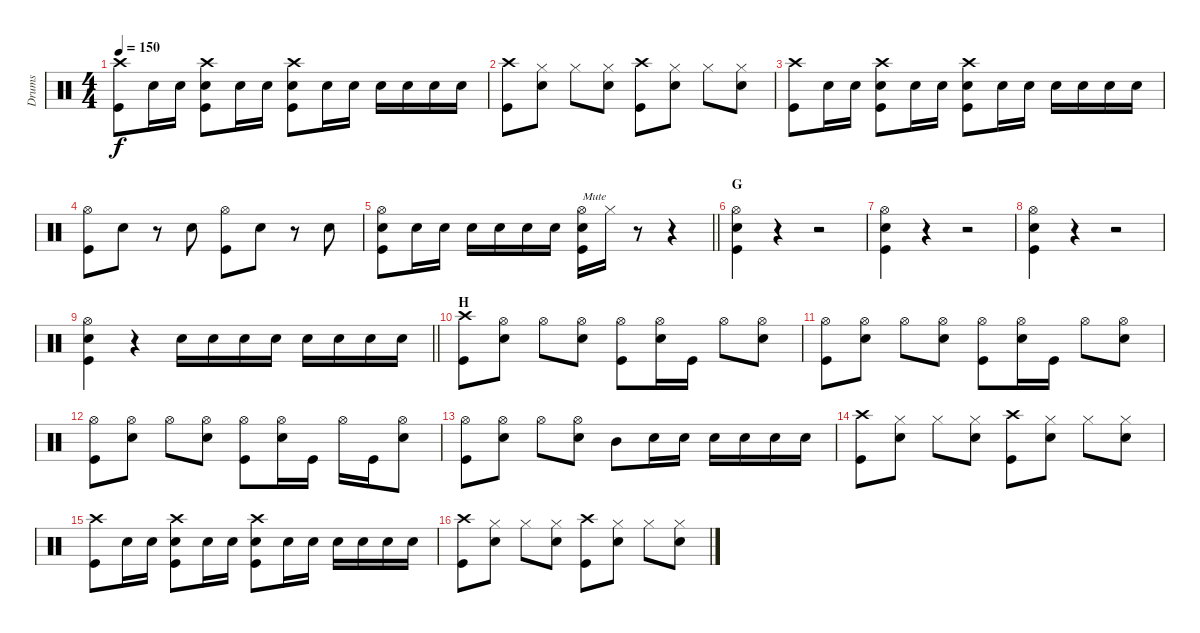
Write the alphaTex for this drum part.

\track ("Drums" "Drums") {instrument percussion}
\staff {score}
\articulation defaults
\ts (4 4)
\tempo 150
\clef neutral
\ks c
("Crash high (hit)" "Kick (hit)").8{dy f} "Snare (hit) 2".16 "Snare (hit) 2".16 ("Crash high (hit)" "Snare (hit) 2" "Kick (hit)").8 "Snare (hit) 2".16 "Snare (hit) 2".16 ("Crash high (hit)" "Snare (hit) 2" "Kick (hit)").8 "Snare (hit) 2".16 "Snare (hit) 2".16 "Snare (hit) 2".16 "Snare (hit) 2".16 "Snare (hit) 2".16 "Snare (hit) 2".16 |
("Crash high (hit)" "Kick (hit)").8 ("Hi-Hat (closed)" "Snare (hit) 2").8 "Hi-Hat (closed)".8 ("Hi-Hat (closed)" "Snare (hit) 2").8 ("Crash high (hit)" "Kick (hit)").8 ("Hi-Hat (closed)" "Snare (hit) 2").8 "Hi-Hat (closed)".8 ("Hi-Hat (closed)" "Snare (hit) 2").8 |
("Crash high (hit)" "Kick (hit)").8 "Snare (hit) 2".16 "Snare (hit) 2".16 ("Crash high (hit)" "Snare (hit) 2" "Kick (hit)").8 "Snare (hit) 2".16 "Snare (hit) 2".16 ("Crash high (hit)" "Snare (hit) 2" "Kick (hit)").8 "Snare (hit) 2".16 "Snare (hit) 2".16 "Snare (hit) 2".16 "Snare (hit) 2".16 "Snare (hit) 2".16 "Snare (hit) 2".16 |
("Hi-Hat (open)" "Kick (hit)").8 "Snare (hit) 2".8 r.8 "Snare (hit) 2".8 ("Hi-Hat (open)" "Kick (hit)").8 "Snare (hit) 2".8 r.8 "Snare (hit) 2".8 |
\barLineRight lightlight
("Hi-Hat (open)" "Snare (hit) 2" "Kick (hit)").8 "Snare (hit) 2".16 "Snare (hit) 2".16 "Snare (hit) 2".16 "Snare (hit) 2".16 "Snare (hit) 2".16 "Snare (hit) 2".16 ("Hi-Hat (open)" "Snare (hit) 2" "Kick (hit)").16{txt "Mute"} "Hi-Hat (closed)".16 r.8 r.4 |
\section ("" "G")
("Hi-Hat (open)" "Snare (hit) 2" "Kick (hit)").4 r.4 r.2 |
("Hi-Hat (open)" "Snare (hit) 2" "Kick (hit)").4 r.4 r.2 |
("Hi-Hat (open)" "Snare (hit) 2" "Kick (hit)").4 r.4 r.2 |
\barLineRight lightlight
("Hi-Hat (open)" "Snare (hit) 2" "Kick (hit)").4 r.4 "Snare (hit) 2".16 "Snare (hit) 2".16 "Snare (hit) 2".16 "Snare (hit) 2".16 "Snare (hit) 2".16 "Snare (hit) 2".16 "Snare (hit) 2".16 "Snare (hit) 2".16 |
\section ("" "H")
("Crash high (hit)" "Kick (hit)").8 ("Hi-Hat (open)" "Snare (hit) 2").8 "Hi-Hat (open)".8 ("Hi-Hat (open)" "Snare (hit) 2").8 ("Hi-Hat (open)" "Kick (hit)").8 ("Hi-Hat (open)" "Snare (hit) 2").16 "Kick (hit)".16 "Hi-Hat (open)".8 ("Hi-Hat (open)" "Snare (hit) 2").8 |
("Hi-Hat (open)" "Kick (hit)").8 ("Hi-Hat (open)" "Snare (hit) 2").8 "Hi-Hat (open)".8 ("Hi-Hat (open)" "Snare (hit) 2").8 ("Hi-Hat (open)" "Kick (hit)").8 ("Hi-Hat (open)" "Snare (hit) 2").16 "Kick (hit)".16 "Hi-Hat (open)".8 ("Hi-Hat (open)" "Snare (hit) 2").8 |
("Hi-Hat (open)" "Kick (hit)").8 ("Hi-Hat (open)" "Snare (hit) 2").8 "Hi-Hat (open)".8 ("Hi-Hat (open)" "Snare (hit) 2").8 ("Hi-Hat (open)" "Kick (hit)").8 ("Hi-Hat (open)" "Snare (hit) 2").16 "Kick (hit)".16 "Hi-Hat (open)".16 "Kick (hit)".16 ("Hi-Hat (open)" "Snare (hit) 2").8 |
("Hi-Hat (open)" "Kick (hit)").8 ("Hi-Hat (open)" "Snare (hit) 2").8 "Hi-Hat (open)".8 ("Hi-Hat (open)" "Snare (hit) 2").8 "Mid Tom (hit)".8 "Snare (hit) 2".16 "Snare (hit) 2".16 "Snare (hit) 2".16 "Snare (hit) 2".16 "Snare (hit) 2".16 "Snare (hit) 2".16 |
("Crash high (hit)" "Kick (hit)").8 ("Hi-Hat (closed)" "Snare (hit) 2").8 "Hi-Hat (closed)".8 ("Hi-Hat (closed)" "Snare (hit) 2").8 ("Crash high (hit)" "Kick (hit)").8 ("Hi-Hat (closed)" "Snare (hit) 2").8 "Hi-Hat (closed)".8 ("Hi-Hat (closed)" "Snare (hit) 2").8 |
("Crash high (hit)" "Kick (hit)").8 "Snare (hit) 2".16 "Snare (hit) 2".16 ("Crash high (hit)" "Snare (hit) 2" "Kick (hit)").8 "Snare (hit) 2".16 "Snare (hit) 2".16 ("Crash high (hit)" "Snare (hit) 2" "Kick (hit)").8 "Snare (hit) 2".16 "Snare (hit) 2".16 "Snare (hit) 2".16 "Snare (hit) 2".16 "Snare (hit) 2".16 "Snare (hit) 2".16 |
("Crash high (hit)" "Kick (hit)").8 ("Hi-Hat (closed)" "Snare (hit) 2").8 "Hi-Hat (closed)".8 ("Hi-Hat (closed)" "Snare (hit) 2").8 ("Crash high (hit)" "Kick (hit)").8 ("Hi-Hat (closed)" "Snare (hit) 2").8 "Hi-Hat (closed)".8 ("Hi-Hat (closed)" "Snare (hit) 2").8
